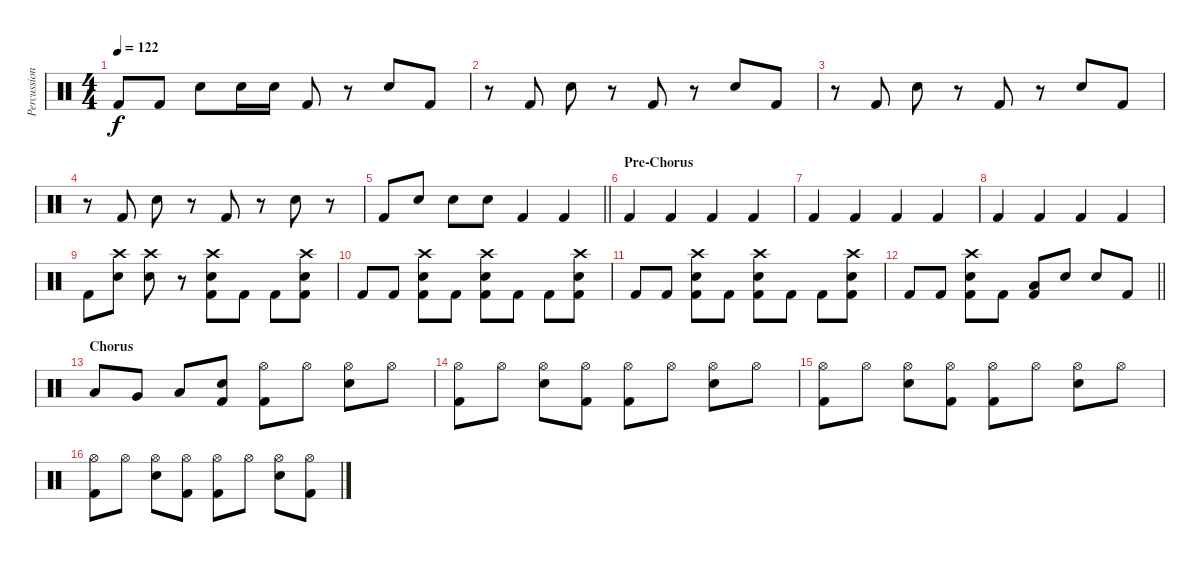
\track ("Percussion" "Percussion") {instrument percussion}
\staff {score}
\articulation defaults
\ts (4 4)
\tempo 122
\clef neutral
\ks c "Kick (hit) 2".8{dy f} "Kick (hit) 2".8 "Snare (hit) 2".8 "Snare (hit) 2".16 "Snare (hit) 2".16 "Kick (hit) 2".8
r.8 "Snare (hit) 2".8 "Kick (hit) 2".8 |
r.8 "Kick (hit) 2".8 "Snare (hit) 2".8 r.8 "Kick (hit) 2".8 r.8 "Snare (hit) 2".8 "Kick (hit) 2".8 |
r.8 "Kick (hit) 2".8 "Snare (hit) 2".8 r.8 "Kick (hit) 2".8 r.8 "Snare (hit) 2".8 "Kick (hit) 2".8 |
r.8 "Kick (hit) 2".8 "Snare (hit) 2".8 r.8 "Kick (hit) 2".8 r.8 "Snare (hit) 2".8 r.8 |
\barLineRight lightlight "Kick (hit) 2".8 "Snare (hit) 2".8 "Snare (hit) 2".8 "Snare (hit) 2".8 "Kick (hit) 2".4 "Kick (hit) 2".4
|
\section ("" "Pre-Chorus")
"Kick (hit) 2".4 "Kick (hit) 2".4 "Kick (hit) 2".4 "Kick (hit) 2".4 |
"Kick (hit) 2".4 "Kick (hit) 2".4 "Kick (hit) 2".4 "Kick (hit) 2".4 |
"Kick (hit) 2".4 "Kick (hit) 2".4 "Kick (hit) 2".4 "Kick (hit) 2".4 |
"Kick (hit) 2".8 ("Crash high (hit)" "Snare (hit) 2").8 ("Crash high (hit)" "Snare (hit) 2").8 r.8 ("Crash high (hit)" "Snare (hit) 2" "Kick (hit) 2").8 "Kick (hit) 2".8 "Kick (hit) 2".8 ("Crash high (hit)" "Snare (hit) 2" "Kick (hit) 2").8 |
"Kick (hit) 2".8 "Kick (hit) 2".8 ("Crash high (hit)" "Snare (hit) 2" "Kick (hit) 2").8 "Kick (hit) 2".8 ("Crash high (hit)" "Snare (hit) 2" "Kick (hit) 2").8 "Kick (hit) 2".8 "Kick (hit) 2".8 ("Crash high (hit)" "Snare (hit) 2" "Kick (hit) 2").8 |
"Kick (hit) 2".8 "Kick (hit) 2".8 ("Crash high (hit)" "Snare (hit) 2" "Kick (hit) 2").8 "Kick (hit) 2".8 ("Crash high (hit)" "Snare (hit) 2" "Kick (hit) 2").8 "Kick (hit) 2".8 "Kick (hit) 2".8 ("Crash high (hit)" "Snare (hit) 2" "Kick (hit) 2").8 |
\barLineRight lightlight "Kick (hit) 2".8 "Kick (hit) 2".8
("Crash high (hit)" "Snare (hit) 2" "Kick (hit) 2").8 "Kick (hit) 2".8 ("Low Tom (hit)" "Kick (hit) 2").8 "Snare (hit) 2".8 "Snare (hit) 2".8 "Kick (hit) 2".8 |
\section ("" "Chorus")
"Low Tom (hit)".8 "Very Low Tom (hit)".8 "Low Floor Tom (hit)".8 ("Snare (hit) 2" "Kick (hit) 2").8 ("Hi-Hat (open)" "Kick (hit) 2").8 "Hi-Hat (open)".8 ("Hi-Hat (open)" "Snare (hit) 2").8 "Hi-Hat (open)".8 |
("Hi-Hat (open)" "Kick (hit) 2").8 "Hi-Hat (open)".8 ("Hi-Hat (open)" "Snare (hit) 2").8 ("Hi-Hat (open)" "Kick (hit) 2").8 ("Hi-Hat (open)" "Kick (hit) 2").8 "Hi-Hat (open)".8 ("Hi-Hat (open)" "Snare (hit) 2").8 "Hi-Hat (open)".8 |
("Hi-Hat (open)" "Kick (hit) 2").8 "Hi-Hat (open)".8 ("Hi-Hat (open)" "Snare (hit) 2").8 ("Hi-Hat (open)" "Kick (hit) 2").8 ("Hi-Hat (open)" "Kick (hit) 2").8 "Hi-Hat (open)".8 ("Hi-Hat (open)" "Snare (hit) 2").8 "Hi-Hat (open)".8 |
("Hi-Hat (open)" "Kick (hit) 2").8 "Hi-Hat (open)".8 ("Hi-Hat (open)" "Snare (hit) 2").8 ("Hi-Hat (open)" "Kick (hit) 2").8 ("Hi-Hat (open)" "Kick (hit) 2").8 "Hi-Hat (open)".8 ("Hi-Hat (open)" "Snare (hit) 2").8 ("Hi-Hat (open)" "Kick (hit) 2").8
